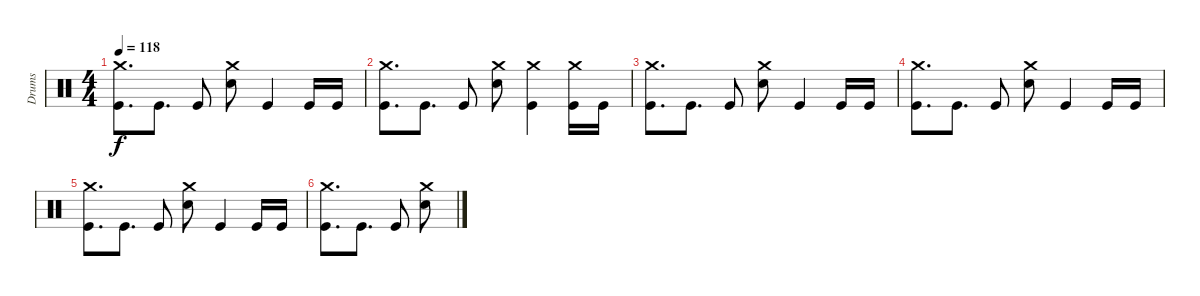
\track ("Drums" "Drums") {instrument percussion}
\staff {score}
\articulation defaults
\ts (4 4)
\tempo 118
\clef neutral
\ks c
("Crash medium (hit)" "Kick (hit)").8{d dy f} "Kick (hit)".8{d} "Kick (hit)".8 ("Crash medium (hit)" "Snare (hit) 2").8 "Kick (hit)".4 "Kick (hit)".16 "Kick (hit)".16 |
("Crash medium (hit)" "Kick (hit)").8{d} "Kick (hit)".8{d} "Kick (hit)".8 ("Crash medium (hit)" "Snare (hit) 2").8 ("Crash medium (hit)" "Kick (hit)").4 ("Crash medium (hit)" "Kick (hit)").16 "Kick (hit)".16 |
("Crash medium (hit)" "Kick (hit)").8{d} "Kick (hit)".8{d} "Kick (hit)".8 ("Crash medium (hit)" "Snare (hit) 2").8 "Kick (hit)".4 "Kick (hit)".16 "Kick (hit)".16 |
("Crash medium (hit)" "Kick (hit)").8{d} "Kick (hit)".8{d} "Kick (hit)".8 ("Crash medium (hit)" "Snare (hit) 2").8 "Kick (hit)".4 "Kick (hit)".16 "Kick (hit)".16 |
("Crash medium (hit)" "Kick (hit)").8{d} "Kick (hit)".8{d} "Kick (hit)".8 ("Crash medium (hit)" "Snare (hit) 2").8 "Kick (hit)".4 "Kick (hit)".16 "Kick (hit)".16 |
("Crash medium (hit)" "Kick (hit)").8{d} "Kick (hit)".8{d} "Kick (hit)".8 ("Crash medium (hit)" "Snare (hit) 2").8
